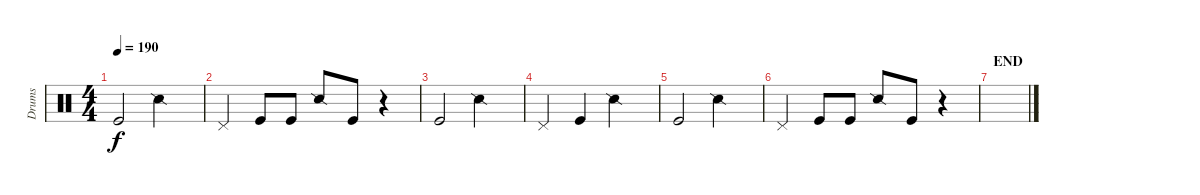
\track ("Drums" "Drums") {instrument percussion}
\staff {score}
\articulation defaults
\ts (4 4)
\tempo 190
\clef neutral
\ks c "Kick (hit)".2{dy f} "Snare (side stick) 2".2
|
"Pedal Hi-Hat (hit)".4 "Kick (hit)".8 "Kick (hit)".8 "Snare (side stick) 2".8 "Kick (hit)".8 r.4 |
"Kick (hit)".2 "Snare (side stick) 2".2 |
"Pedal Hi-Hat (hit)".4 "Kick (hit)".4 "Snare (side stick) 2".2 |
"Kick (hit)".2 "Snare (side stick) 2".2 |
"Pedal Hi-Hat (hit)".4 "Kick (hit)".8 "Kick (hit)".8 "Snare (side stick) 2".8 "Kick (hit)".8 r.4 |
\section ("" "END")
